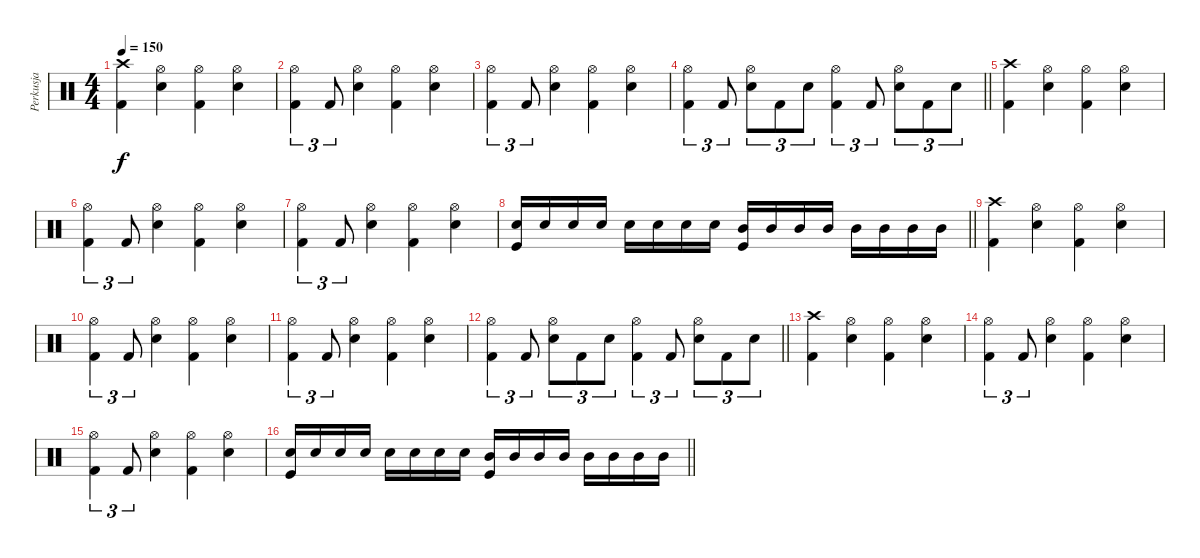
\track ("Perkusja" "Perkusja") {instrument percussion}
\staff {score}
\articulation defaults
\ts (4 4)
\tempo 150
\clef neutral
\ks c
("Kick (hit) 2" "Crash high (hit)").4{dy f} ("Snare (hit) 2" "Hi-Hat (open)").4 ("Kick (hit) 2" "Hi-Hat (open)").4 ("Snare (hit) 2" "Hi-Hat (open)").4 |
("Kick (hit) 2" "Hi-Hat (open)").4{tu (3 2)} "Kick (hit) 2".8{tu (3 2)} ("Snare (hit) 2" "Hi-Hat (open)").4 ("Kick (hit) 2" "Hi-Hat (open)").4 ("Snare (hit) 2" "Hi-Hat (open)").4 |
("Kick (hit) 2" "Hi-Hat (open)").4{tu (3 2)} "Kick (hit) 2".8{tu (3 2)} ("Snare (hit) 2" "Hi-Hat (open)").4 ("Kick (hit) 2" "Hi-Hat (open)").4 ("Snare (hit) 2" "Hi-Hat (open)").4 |
\barLineRight lightlight
("Kick (hit) 2" "Hi-Hat (open)").4{tu (3 2)} "Kick (hit) 2".8{tu (3 2)} ("Snare (hit) 2" "Hi-Hat (open)").8{tu (3 2)} "Kick (hit) 2".8{tu (3 2)} "Snare (hit) 2".8{tu (3 2)} ("Kick (hit) 2" "Hi-Hat (open)").4{tu (3 2)} "Kick (hit) 2".8{tu (3 2)} ("Snare (hit) 2" "Hi-Hat (open)").8{tu (3 2)} "Kick (hit) 2".8{tu (3 2)} "Snare (hit) 2".8{tu (3 2)} |
("Kick (hit) 2" "Crash high (hit)").4 ("Snare (hit) 2" "Hi-Hat (open)").4 ("Kick (hit) 2" "Hi-Hat (open)").4 ("Snare (hit) 2" "Hi-Hat (open)").4 |
("Kick (hit) 2" "Hi-Hat (open)").4{tu (3 2)} "Kick (hit) 2".8{tu (3 2)} ("Snare (hit) 2" "Hi-Hat (open)").4 ("Kick (hit) 2" "Hi-Hat (open)").4 ("Snare (hit) 2" "Hi-Hat (open)").4 |
("Kick (hit) 2" "Hi-Hat (open)").4{tu (3 2)} "Kick (hit) 2".8{tu (3 2)} ("Snare (hit) 2" "Hi-Hat (open)").4 ("Kick (hit) 2" "Hi-Hat (open)").4 ("Snare (hit) 2" "Hi-Hat (open)").4 |
\barLineRight lightlight
("Kick (hit)" "Snare (hit) 2").16 "Snare (hit) 2".16 "Snare (hit) 2".16 "Snare (hit) 2".16 "Snare (hit) 2".16 "Snare (hit) 2".16 "Snare (hit) 2".16 "Snare (hit) 2".16 ("Mid Tom (hit)" "Kick (hit)").16 "Mid Tom (hit)".16 "Mid Tom (hit)".16 "Mid Tom (hit)".16 "Mid Tom (hit)".16 "Mid Tom (hit)".16 "Mid Tom (hit)".16 "Mid Tom (hit)".16 |
("Kick (hit) 2" "Crash high (hit)").4 ("Snare (hit) 2" "Hi-Hat (open)").4 ("Kick (hit) 2" "Hi-Hat (open)").4 ("Snare (hit) 2" "Hi-Hat (open)").4 |
("Kick (hit) 2" "Hi-Hat (open)").4{tu (3 2)} "Kick (hit) 2".8{tu (3 2)} ("Snare (hit) 2" "Hi-Hat (open)").4 ("Kick (hit) 2" "Hi-Hat (open)").4 ("Snare (hit) 2" "Hi-Hat (open)").4 |
("Kick (hit) 2" "Hi-Hat (open)").4{tu (3 2)} "Kick (hit) 2".8{tu (3 2)} ("Snare (hit) 2" "Hi-Hat (open)").4 ("Kick (hit) 2" "Hi-Hat (open)").4 ("Snare (hit) 2" "Hi-Hat (open)").4 |
\barLineRight lightlight
("Kick (hit) 2" "Hi-Hat (open)").4{tu (3 2)} "Kick (hit) 2".8{tu (3 2)} ("Snare (hit) 2" "Hi-Hat (open)").8{tu (3 2)} "Kick (hit) 2".8{tu (3 2)} "Snare (hit) 2".8{tu (3 2)} ("Kick (hit) 2" "Hi-Hat (open)").4{tu (3 2)} "Kick (hit) 2".8{tu (3 2)} ("Snare (hit) 2" "Hi-Hat (open)").8{tu (3 2)} "Kick (hit) 2".8{tu (3 2)} "Snare (hit) 2".8{tu (3 2)} |
("Kick (hit) 2" "Crash high (hit)").4 ("Snare (hit) 2" "Hi-Hat (open)").4 ("Kick (hit) 2" "Hi-Hat (open)").4 ("Snare (hit) 2" "Hi-Hat (open)").4 |
("Kick (hit) 2" "Hi-Hat (open)").4{tu (3 2)} "Kick (hit) 2".8{tu (3 2)} ("Snare (hit) 2" "Hi-Hat (open)").4 ("Kick (hit) 2" "Hi-Hat (open)").4 ("Snare (hit) 2" "Hi-Hat (open)").4 |
("Kick (hit) 2" "Hi-Hat (open)").4{tu (3 2)} "Kick (hit) 2".8{tu (3 2)} ("Snare (hit) 2" "Hi-Hat (open)").4 ("Kick (hit) 2" "Hi-Hat (open)").4 ("Snare (hit) 2" "Hi-Hat (open)").4 |
\barLineRight lightlight
("Kick (hit)" "Snare (hit) 2").16 "Snare (hit) 2".16 "Snare (hit) 2".16 "Snare (hit) 2".16 "Snare (hit) 2".16 "Snare (hit) 2".16 "Snare (hit) 2".16 "Snare (hit) 2".16 ("Mid Tom (hit)" "Kick (hit)").16 "Mid Tom (hit)".16 "Mid Tom (hit)".16 "Mid Tom (hit)".16 "Mid Tom (hit)".16 "Mid Tom (hit)".16 "Mid Tom (hit)".16 "Mid Tom (hit)".16
